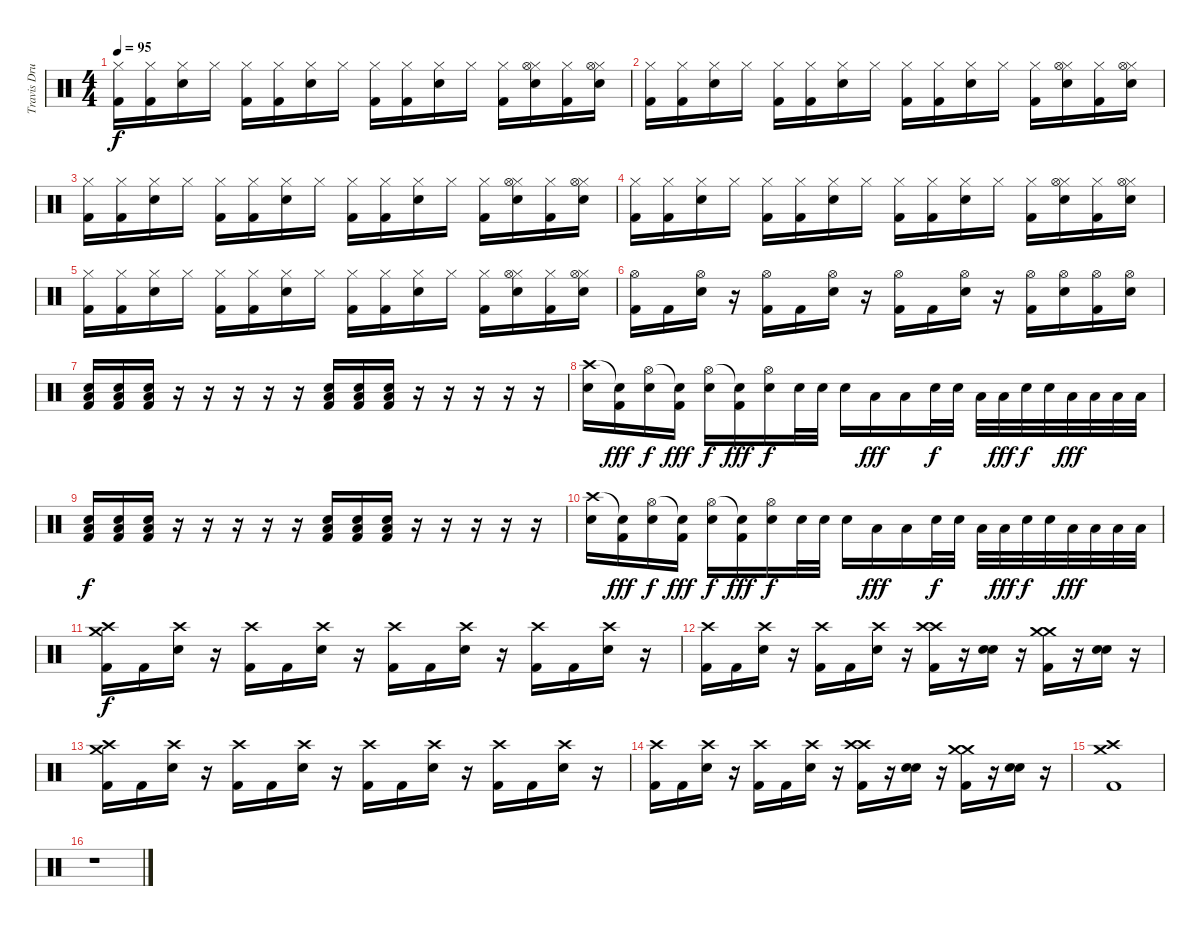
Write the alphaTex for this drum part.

\track ("Travis Drums" "Travis Dru") {instrument percussion}
\staff {score}
\articulation defaults
\ts (4 4)
\tempo 95
\clef neutral
\ks c
("Hi-Hat (closed)" "Kick (hit) 2").16{dy f} ("Hi-Hat (closed)" "Kick (hit) 2").16 ("Hi-Hat (closed)" "Snare (hit) 2").16 "Hi-Hat (closed)".16 ("Hi-Hat (closed)" "Kick (hit) 2").16 ("Hi-Hat (closed)" "Kick (hit) 2").16 ("Hi-Hat (closed)" "Snare (hit) 2").16 "Hi-Hat (closed)".16 ("Hi-Hat (closed)" "Kick (hit) 2").16 ("Hi-Hat (closed)" "Kick (hit) 2").16 ("Hi-Hat (closed)" "Snare (hit) 2").16 "Hi-Hat (closed)".16 ("Hi-Hat (closed)" "Kick (hit) 2").16 ("Hi-Hat (closed)" "Hi-Hat (open)" "Snare (hit) 2").16 ("Hi-Hat (closed)" "Kick (hit) 2").16 ("Hi-Hat (closed)" "Hi-Hat (open)" "Snare (hit) 2").16 |
("Hi-Hat (closed)" "Kick (hit) 2").16 ("Hi-Hat (closed)" "Kick (hit) 2").16 ("Hi-Hat (closed)" "Snare (hit) 2").16 "Hi-Hat (closed)".16 ("Hi-Hat (closed)" "Kick (hit) 2").16 ("Hi-Hat (closed)" "Kick (hit) 2").16 ("Hi-Hat (closed)" "Snare (hit) 2").16 "Hi-Hat (closed)".16 ("Hi-Hat (closed)" "Kick (hit) 2").16 ("Hi-Hat (closed)" "Kick (hit) 2").16 ("Hi-Hat (closed)" "Snare (hit) 2").16 "Hi-Hat (closed)".16 ("Hi-Hat (closed)" "Kick (hit) 2").16 ("Hi-Hat (closed)" "Hi-Hat (open)" "Snare (hit) 2").16 ("Hi-Hat (closed)" "Kick (hit) 2").16 ("Hi-Hat (closed)" "Hi-Hat (open)" "Snare (hit) 2").16 |
("Hi-Hat (closed)" "Kick (hit) 2").16 ("Hi-Hat (closed)" "Kick (hit) 2").16 ("Hi-Hat (closed)" "Snare (hit) 2").16 "Hi-Hat (closed)".16 ("Hi-Hat (closed)" "Kick (hit) 2").16 ("Hi-Hat (closed)" "Kick (hit) 2").16 ("Hi-Hat (closed)" "Snare (hit) 2").16 "Hi-Hat (closed)".16 ("Hi-Hat (closed)" "Kick (hit) 2").16 ("Hi-Hat (closed)" "Kick (hit) 2").16 ("Hi-Hat (closed)" "Snare (hit) 2").16 "Hi-Hat (closed)".16 ("Hi-Hat (closed)" "Kick (hit) 2").16 ("Hi-Hat (closed)" "Hi-Hat (open)" "Snare (hit) 2").16 ("Hi-Hat (closed)" "Kick (hit) 2").16 ("Hi-Hat (closed)" "Hi-Hat (open)" "Snare (hit) 2").16 |
("Hi-Hat (closed)" "Kick (hit) 2").16 ("Hi-Hat (closed)" "Kick (hit) 2").16 ("Hi-Hat (closed)" "Snare (hit) 2").16 "Hi-Hat (closed)".16 ("Hi-Hat (closed)" "Kick (hit) 2").16 ("Hi-Hat (closed)" "Kick (hit) 2").16 ("Hi-Hat (closed)" "Snare (hit) 2").16 "Hi-Hat (closed)".16 ("Hi-Hat (closed)" "Kick (hit) 2").16 ("Hi-Hat (closed)" "Kick (hit) 2").16 ("Hi-Hat (closed)" "Snare (hit) 2").16 "Hi-Hat (closed)".16 ("Hi-Hat (closed)" "Kick (hit) 2").16 ("Hi-Hat (closed)" "Hi-Hat (open)" "Snare (hit) 2").16 ("Hi-Hat (closed)" "Kick (hit) 2").16 ("Hi-Hat (closed)" "Hi-Hat (open)" "Snare (hit) 2").16 |
("Hi-Hat (closed)" "Kick (hit) 2").16 ("Hi-Hat (closed)" "Kick (hit) 2").16 ("Hi-Hat (closed)" "Snare (hit) 2").16 "Hi-Hat (closed)".16 ("Hi-Hat (closed)" "Kick (hit) 2").16 ("Hi-Hat (closed)" "Kick (hit) 2").16 ("Hi-Hat (closed)" "Snare (hit) 2").16 "Hi-Hat (closed)".16 ("Hi-Hat (closed)" "Kick (hit) 2").16 ("Hi-Hat (closed)" "Kick (hit) 2").16 ("Hi-Hat (closed)" "Snare (hit) 2").16 "Hi-Hat (closed)".16 ("Hi-Hat (closed)" "Kick (hit) 2").16 ("Hi-Hat (closed)" "Hi-Hat (open)" "Snare (hit) 2").16 ("Hi-Hat (closed)" "Kick (hit) 2").16 ("Hi-Hat (closed)" "Hi-Hat (open)" "Snare (hit) 2").16 |
("Hi-Hat (open)" "Kick (hit) 2").16 "Kick (hit) 2".16 ("Hi-Hat (open)" "Snare (hit) 2").16 r.16 ("Hi-Hat (open)" "Kick (hit) 2").16 "Kick (hit) 2".16 ("Hi-Hat (open)" "Snare (hit) 2").16 r.16 ("Hi-Hat (open)" "Kick (hit) 2").16 "Kick (hit) 2".16 ("Hi-Hat (open)" "Snare (hit) 2").16 r.16 ("Hi-Hat (open)" "Kick (hit) 2").16 ("Hi-Hat (open)" "Snare (hit) 2").16 ("Hi-Hat (open)" "Kick (hit) 2").16 ("Hi-Hat (open)" "Snare (hit) 2").16 |
("Snare (hit) 2" "Kick (hit) 2" "Low Floor Tom (hit)").16 ("Snare (hit) 2" "Kick (hit) 2" "Low Floor Tom (hit)").16 ("Snare (hit) 2" "Kick (hit) 2" "Low Floor Tom (hit)").16 r.16 r.16 r.16 r.16 r.16 ("Snare (hit) 2" "Kick (hit) 2" "Low Floor Tom (hit)").16 ("Snare (hit) 2" "Kick (hit) 2" "Low Floor Tom (hit)").16 ("Snare (hit) 2" "Kick (hit) 2" "Low Floor Tom (hit)").16 r.16 r.16 r.16 r.16 r.16 |
("Crash high (hit)" "Snare (hit) 2").16 ("Snare (hit)"{t} "Kick (hit) 2").16{dy fff} ("Hi-Hat (open)" "Snare (hit) 2").16{dy f} ("Snare (hit)"{t} "Kick (hit) 2").16{dy fff} ("Hi-Hat (open)" "Snare (hit) 2").16{dy f} ("Snare (hit)"{t} "Kick (hit) 2").16{dy fff} ("Hi-Hat (open)" "Snare (hit) 2").16{dy f} "Snare (hit) 2".32 "Snare (hit) 2".32 "Snare (hit) 2".16 "Low Tom (hit)".16{dy fff} "Low Floor Tom (hit)".16 "Snare (hit) 2".32{dy f} "Snare (hit) 2".32 "Low Tom (hit)".32 "Low Tom (hit)".32{dy fff} "Snare (hit) 2".32{dy f} "Snare (hit) 2".32 "Low Floor Tom (hit)".32{dy fff} "Low Floor Tom (hit)".32 "Low Floor Tom (hit)".32 "Low Floor Tom (hit)".32 |
("Snare (hit) 2" "Kick (hit) 2" "Low Floor Tom (hit)").16{dy f} ("Snare (hit) 2" "Kick (hit) 2" "Low Floor Tom (hit)").16 ("Snare (hit) 2" "Kick (hit) 2" "Low Floor Tom (hit)").16 r.16 r.16 r.16 r.16 r.16 ("Snare (hit) 2" "Kick (hit) 2" "Low Floor Tom (hit)").16 ("Snare (hit) 2" "Kick (hit) 2" "Low Floor Tom (hit)").16 ("Snare (hit) 2" "Kick (hit) 2" "Low Floor Tom (hit)").16 r.16 r.16 r.16 r.16 r.16 |
("Crash high (hit)" "Snare (hit) 2").16 ("Snare (hit)"{t} "Kick (hit) 2").16{dy fff} ("Hi-Hat (open)" "Snare (hit) 2").16{dy f} ("Snare (hit)"{t} "Kick (hit) 2").16{dy fff} ("Hi-Hat (open)" "Snare (hit) 2").16{dy f} ("Snare (hit)"{t} "Kick (hit) 2").16{dy fff} ("Hi-Hat (open)" "Snare (hit) 2").16{dy f} "Snare (hit) 2".32 "Snare (hit) 2".32 "Snare (hit) 2".16 "Low Tom (hit)".16{dy fff} "Low Floor Tom (hit)".16 "Snare (hit) 2".32{dy f} "Snare (hit) 2".32 "Low Tom (hit)".32 "Low Tom (hit)".32{dy fff} "Snare (hit) 2".32{dy f} "Snare (hit) 2".32 "Low Floor Tom (hit)".32{dy fff} "Low Floor Tom (hit)".32 "Low Floor Tom (hit)".32 "Low Floor Tom (hit)".32 |
("Crash medium (hit)" "Crash high (hit)" "Kick (hit) 2").16{dy f} "Kick (hit) 2".16 ("Crash high (hit)" "Snare (hit) 2").16 r.16 ("Crash high (hit)" "Kick (hit) 2").16 "Kick (hit) 2".16 ("Crash high (hit)" "Snare (hit) 2").16 r.16 ("Crash high (hit)" "Kick (hit) 2").16 "Kick (hit) 2".16 ("Crash high (hit)" "Snare (hit) 2").16 r.16 ("Crash high (hit)" "Kick (hit) 2").16 "Kick (hit) 2".16 ("Crash high (hit)" "Snare (hit) 2").16 r.16 |
("Crash high (hit)" "Kick (hit) 2").16 "Kick (hit) 2".16 ("Crash high (hit)" "Snare (hit) 2").16 r.16 ("Crash high (hit)" "Kick (hit) 2").16 "Kick (hit) 2".16 ("Crash high (hit)" "Snare (hit) 2").16 r.16 ("Crash high (hit)" "Crash high (hit)" "Kick (hit) 2").16 r.16 ("Snare (hit) 2" "Snare (hit) 2").16 r.16 ("Crash medium (hit)" "Crash medium (hit)" "Kick (hit) 2").16 r.16 ("Snare (hit) 2" "Snare (hit) 2").16 r.16 |
("Crash medium (hit)" "Crash high (hit)" "Kick (hit) 2").16 "Kick (hit) 2".16 ("Crash high (hit)" "Snare (hit) 2").16 r.16 ("Crash high (hit)" "Kick (hit) 2").16 "Kick (hit) 2".16 ("Crash high (hit)" "Snare (hit) 2").16 r.16 ("Crash high (hit)" "Kick (hit) 2").16 "Kick (hit) 2".16 ("Crash high (hit)" "Snare (hit) 2").16 r.16 ("Crash high (hit)" "Kick (hit) 2").16 "Kick (hit) 2".16 ("Crash high (hit)" "Snare (hit) 2").16 r.16 |
("Crash high (hit)" "Kick (hit) 2").16 "Kick (hit) 2".16 ("Crash high (hit)" "Snare (hit) 2").16 r.16 ("Crash high (hit)" "Kick (hit) 2").16 "Kick (hit) 2".16 ("Crash high (hit)" "Snare (hit) 2").16 r.16 ("Crash high (hit)" "Crash high (hit)" "Kick (hit) 2").16 r.16 ("Snare (hit) 2" "Snare (hit) 2").16 r.16 ("Crash medium (hit)" "Crash medium (hit)" "Kick (hit) 2").16 r.16 ("Snare (hit) 2" "Snare (hit) 2").16 r.16 |
("Kick (hit) 2" "Crash high (hit)" "Crash medium (hit)").1 |
r.1
